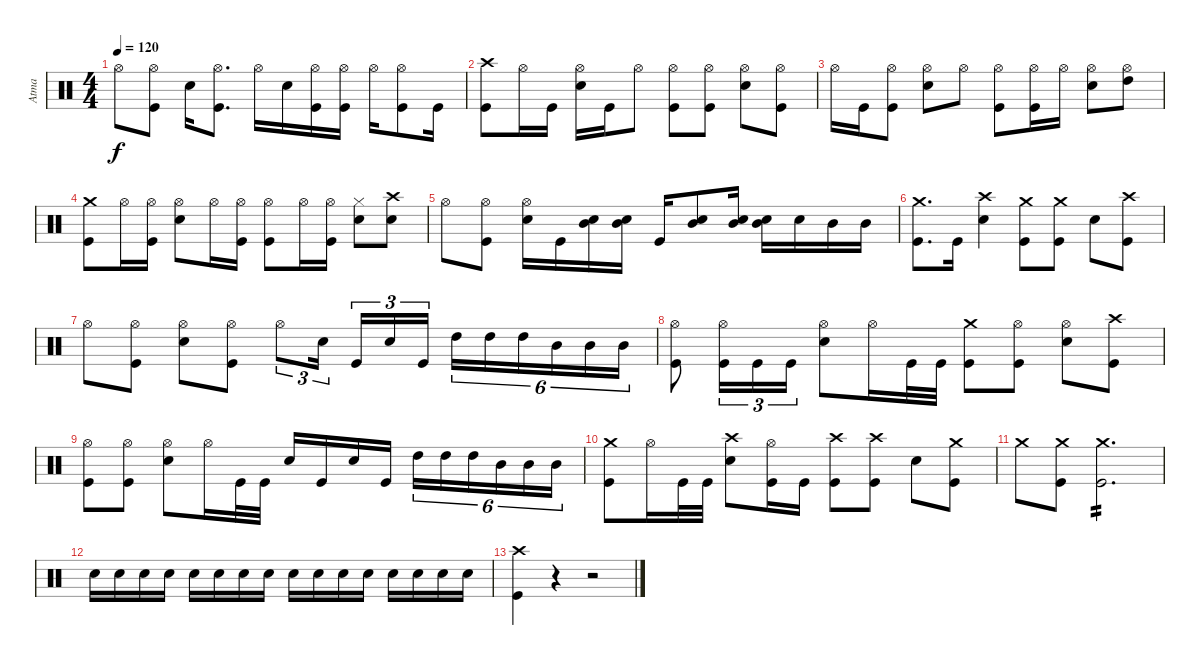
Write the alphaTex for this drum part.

\track ("Atma" "Atma") {instrument percussion}
\staff {score}
\articulation defaults
\ts (4 4)
\tempo 120
\clef neutral
\ks c "Hi-Hat (open)".8{dy f}
("Kick (hit)" "Hi-Hat (open)").8 "Snare (hit) 2".16 ("Kick (hit)" "Hi-Hat (open)").8{d} "Hi-Hat (open)".16 "Snare (hit) 2".16 ("Kick (hit)" "Hi-Hat (open)").16 ("Kick (hit)" "Hi-Hat (open)").16 "Hi-Hat (open)".16 ("Kick (hit)" "Hi-Hat (open)").8 "Kick (hit)".16 |
("Kick (hit)" "Crash high (hit)").8 "Hi-Hat (open)".16 "Kick (hit)".16 ("Snare (hit) 2" "Hi-Hat (open)").16 "Kick (hit)".16 "Hi-Hat (open)".8 ("Kick (hit)" "Hi-Hat (open)").8 ("Kick (hit)" "Hi-Hat (open)").8 ("Snare (hit) 2" "Hi-Hat (open)").8 ("Kick (hit)" "Hi-Hat (open)").8 |
"Hi-Hat (open)".16 "Kick (hit)".16 ("Kick (hit)" "Hi-Hat (open)").8 ("Snare (hit) 2" "Hi-Hat (open)").8 "Hi-Hat (open)".8 ("Kick (hit)" "Hi-Hat (open)").8 ("Kick (hit)" "Hi-Hat (open)").16 "Hi-Hat (open)".16 ("Snare (hit) 2" "Hi-Hat (open)").8 ("High Tom (hit)" "Hi-Hat (open)").8 |
("Kick (hit)" "Crash medium (hit)").8 "Hi-Hat (open)".16 ("Kick (hit)" "Hi-Hat (open)").16 ("Snare (hit) 2" "Hi-Hat (open)").8 "Hi-Hat (open)".16 ("Kick (hit)" "Hi-Hat (open)").16 ("Kick (hit)" "Hi-Hat (open)").8 "Hi-Hat (open)".16 ("Kick (hit)" "Hi-Hat (open)").16 ("Snare (hit) 2" "Hi-Hat (closed)").8 ("Snare (hit) 2" "Crash high (hit)").8 |
"Hi-Hat (open)".8 ("Kick (hit)" "Hi-Hat (open)").8 ("Snare (hit) 2" "Hi-Hat (open)").16 "Kick (hit)".16 ("Snare (hit) 2" "Mid Tom (hit)").16 ("Snare (hit) 2" "Mid Tom (hit)").16 "Kick (hit)".16 ("Snare (hit) 2" "Mid Tom (hit)").8 ("Snare (hit) 2" "Mid Tom (hit)").16 ("Snare (hit) 2" "Mid Tom (hit)").16 "Snare (hit) 2".16 "Mid Tom (hit)".16 "Mid Tom (hit)".16 |
("Kick (hit)" "Crash medium (hit)").8{d} "Kick (hit)".16 ("Snare (hit) 2" "Crash high (hit)").4 ("Kick (hit)" "Crash medium (hit)").8 ("Kick (hit)" "Crash medium (hit)").8 "Snare (hit) 2".8 ("Kick (hit)" "Crash high (hit)").8 |
"Hi-Hat (open)".8 ("Kick (hit)" "Hi-Hat (open)").8 ("Snare (hit) 2" "Hi-Hat (open)").8 ("Kick (hit)" "Hi-Hat (open)").8 "Hi-Hat (open)".8{tu (3 2)} "Snare (hit) 2".16{tu (3 2)} "Kick (hit)".16{tu (3 2)} "Snare (hit) 2".16{tu (3 2)} "Kick (hit)".16{tu (3 2)} "High Tom (hit)".16{tu (6 4)} "High Tom (hit)".16{tu (6 4)} "High Tom (hit)".16{tu (6 4)} "Mid Tom (hit)".16{tu (6 4)} "Mid Tom (hit)".16{tu (6 4)} "Mid Tom (hit)".16{tu (6 4)} |
("Kick (hit)" "Hi-Hat (open)").8 ("Kick (hit)" "Hi-Hat (open)").16{tu (3 2)} "Kick (hit)".16{tu (3 2)} "Kick (hit)".16{tu (3 2)} ("Snare (hit) 2" "Hi-Hat (open)").8 "Hi-Hat (open)".16 "Kick (hit)".32 "Kick (hit)".32 ("Kick (hit)" "Crash medium (hit)").8 ("Kick (hit)" "Hi-Hat (open)").8 ("Snare (hit) 2" "Hi-Hat (open)").8 ("Kick (hit)" "Crash high (hit)").8 |
("Kick (hit)" "Hi-Hat (open)").8 ("Kick (hit)" "Hi-Hat (open)").8 ("Snare (hit) 2" "Hi-Hat (open)").8 "Hi-Hat (open)".16 "Kick (hit)".32 "Kick (hit)".32 "Snare (hit) 2".16 "Kick (hit)".16 "Snare (hit) 2".16 "Kick (hit)".16 "High Tom (hit)".16{tu (6 4)} "High Tom (hit)".16{tu (6 4)} "High Tom (hit)".16{tu (6 4)} "Mid Tom (hit)".16{tu (6 4)} "Mid Tom (hit)".16{tu (6 4)} "Mid Tom (hit)".16{tu (6 4)} |
("Kick (hit)" "Crash medium (hit)").8 "Hi-Hat (open)".16 "Kick (hit)".32 "Kick (hit)".32 ("Snare (hit) 2" "Crash high (hit)").8 ("Kick (hit)" "Hi-Hat (open)").16 "Kick (hit)".16 ("Kick (hit)" "Crash high (hit)").8 ("Kick (hit)" "Crash high (hit)").8 "Snare (hit) 2".8 ("Kick (hit)" "Crash medium (hit)").8 |
"Crash medium (hit)".8 ("Kick (hit)" "Crash medium (hit)").8 ("Kick (hit)" "Crash medium (hit)").2{d tp 2} |
"Snare (hit) 2".16 "Snare (hit) 2".16 "Snare (hit) 2".16 "Snare (hit) 2".16 "Snare (hit) 2".16 "Snare (hit) 2".16 "Snare (hit) 2".16 "Snare (hit) 2".16 "Snare (hit) 2".16 "Snare (hit) 2".16 "Snare (hit) 2".16 "Snare (hit) 2".16 "Snare (hit) 2".16 "Snare (hit) 2".16 "Snare (hit) 2".16 "Snare (hit) 2".16 |
("Kick (hit)" "Crash high (hit)").4 r.4 r.2
